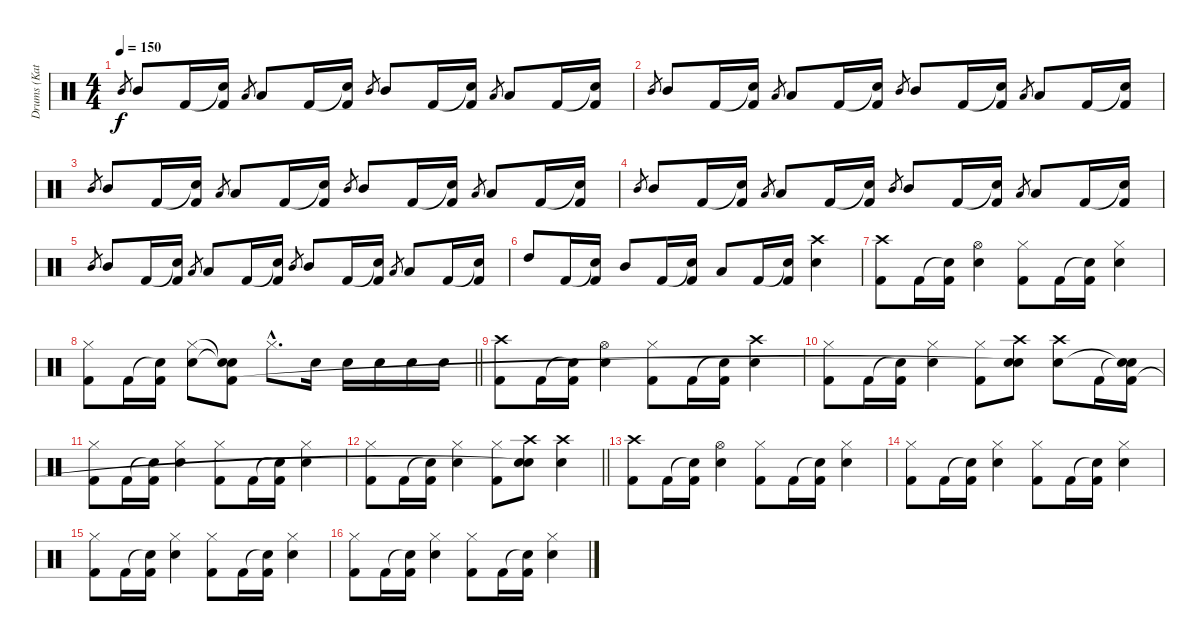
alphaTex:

\track ("Drums (Katsuji)" "Drums (Kat") {instrument percussion}
\staff {score}
\articulation defaults
\ts (4 4)
\tempo 150
\clef neutral
\ks c "Mid Tom (hit)".8{gr dy f} "Mid Tom (hit)".8 "Kick (hit) 2".16
("Snare (hit)"{t} "Kick (hit) 2").16 "Low Tom (hit)".8{gr} "Low Tom (hit)".8 "Kick (hit) 2".16 ("Snare (hit)"{t} "Kick (hit) 2").16 "Mid Tom (hit)".8{gr} "Mid Tom (hit)".8 "Kick (hit) 2".16 ("Snare (hit)"{t} "Kick (hit) 2").16 "Low Tom (hit)".8{gr} "Low Tom (hit)".8 "Kick (hit) 2".16 ("Snare (hit)"{t} "Kick (hit) 2").16 |
"Mid Tom (hit)".8{gr} "Mid Tom (hit)".8 "Kick (hit) 2".16 ("Snare (hit)"{t} "Kick (hit) 2").16 "Low Tom (hit)".8{gr} "Low Tom (hit)".8 "Kick (hit) 2".16 ("Snare (hit)"{t} "Kick (hit) 2").16 "Mid Tom (hit)".8{gr} "Mid Tom (hit)".8 "Kick (hit) 2".16 ("Snare (hit)"{t} "Kick (hit) 2").16 "Low Tom (hit)".8{gr} "Low Tom (hit)".8 "Kick (hit) 2".16 ("Snare (hit)"{t} "Kick (hit) 2").16 |
"Mid Tom (hit)".8{gr} "Mid Tom (hit)".8 "Kick (hit) 2".16 ("Snare (hit)"{t} "Kick (hit) 2").16 "Low Tom (hit)".8{gr} "Low Tom (hit)".8 "Kick (hit) 2".16 ("Snare (hit)"{t} "Kick (hit) 2").16 "Mid Tom (hit)".8{gr} "Mid Tom (hit)".8 "Kick (hit) 2".16 ("Snare (hit)"{t} "Kick (hit) 2").16 "Low Tom (hit)".8{gr} "Low Tom (hit)".8 "Kick (hit) 2".16 ("Snare (hit)"{t} "Kick (hit) 2").16 |
"Mid Tom (hit)".8{gr} "Mid Tom (hit)".8 "Kick (hit) 2".16 ("Snare (hit)"{t} "Kick (hit) 2").16 "Low Tom (hit)".8{gr} "Low Tom (hit)".8 "Kick (hit) 2".16 ("Snare (hit)"{t} "Kick (hit) 2").16 "Mid Tom (hit)".8{gr} "Mid Tom (hit)".8 "Kick (hit) 2".16 ("Snare (hit)"{t} "Kick (hit) 2").16 "Low Tom (hit)".8{gr} "Low Tom (hit)".8 "Kick (hit) 2".16 ("Snare (hit)"{t} "Kick (hit) 2").16 |
"Mid Tom (hit)".8{gr} "Mid Tom (hit)".8 "Kick (hit) 2".16 ("Snare (hit)"{t} "Kick (hit) 2").16 "Low Tom (hit)".8{gr} "Low Tom (hit)".8 "Kick (hit) 2".16 ("Snare (hit)"{t} "Kick (hit) 2").16 "Mid Tom (hit)".8{gr} "Mid Tom (hit)".8 "Kick (hit) 2".16 ("Snare (hit)"{t} "Kick (hit) 2").16 "Low Tom (hit)".8{gr} "Low Tom (hit)".8 "Kick (hit) 2".16 ("Snare (hit)"{t} "Kick (hit) 2").16 |
"High Tom (hit)".8 "Kick (hit) 2".16 ("Snare (hit)"{t} "Kick (hit) 2").16 "Mid Tom (hit)".8 "Kick (hit) 2".16 ("Snare (hit)"{t} "Kick (hit) 2").16 "Low Tom (hit)".8 "Kick (hit) 2".16 ("Snare (hit)"{t} "Kick (hit) 2").16 ("Crash high (hit)" "Snare (hit) 2").4 |
("Crash high (hit)" "Kick (hit) 2").8 "Kick (hit) 2".16 ("Snare (hit)"{t} "Kick (hit) 2").16 ("Hi-Hat (open)" "Snare (hit) 2").4 ("Hi-Hat (closed)" "Kick (hit) 2").8 "Kick (hit) 2".16 ("Snare (hit)"{t} "Kick (hit) 2").16 ("Hi-Hat (closed)" "Snare (hit) 2").4 |
\barLineRight lightlight
("Hi-Hat (closed)" "Kick (hit) 2").8 "Kick (hit) 2".16 ("Snare (hit)"{t} "Kick (hit) 2").16 ("Hi-Hat (closed)" "Snare (hit) 2").8 ("Snare (hit)"{t} "Snare (hit)"{t} "Kick (hit) 2").8 "Hi-Hat (closed)"{hac}.8{d} "Snare (hit) 2".16 "Snare (hit) 2".16 "Snare (hit) 2".16 "Snare (hit) 2".16 "Snare (hit) 2".16 |
("Crash high (hit)" "Kick (hit) 2").8 "Kick (hit) 2".16 ("Snare (hit)"{t} "Kick (hit) 2").16 ("Hi-Hat (open)" "Snare (hit) 2").4 ("Hi-Hat (closed)" "Kick (hit) 2").8 "Kick (hit) 2".16 ("Snare (hit)"{t} "Kick (hit) 2").16 ("Crash high (hit)" "Snare (hit) 2").4 |
("Hi-Hat (closed)" "Kick (hit) 2").8 "Kick (hit) 2".16 ("Snare (hit)"{t} "Kick (hit) 2").16 ("Hi-Hat (closed)" "Snare (hit) 2").4 ("Hi-Hat (closed)" "Kick (hit) 2").8 ("Crash high (hit)" "Snare (hit) 2" "Snare (hit)"{t}).8 ("Crash high (hit)" "Snare (hit) 2").8 "Kick (hit) 2".16 ("Snare (hit)"{t} "Snare (hit)"{t} "Kick (hit) 2").16 |
("Hi-Hat (closed)" "Kick (hit) 2").8 "Kick (hit) 2".16 ("Snare (hit)"{t} "Kick (hit) 2").16 ("Hi-Hat (closed)" "Snare (hit) 2").4 ("Hi-Hat (closed)" "Kick (hit) 2").8 "Kick (hit) 2".16 ("Snare (hit)"{t} "Kick (hit) 2").16 ("Hi-Hat (closed)" "Snare (hit) 2").4 |
\barLineRight lightlight
("Hi-Hat (closed)" "Kick (hit) 2").8 "Kick (hit) 2".16 ("Snare (hit)"{t} "Kick (hit) 2").16 ("Hi-Hat (closed)" "Snare (hit) 2").4 ("Hi-Hat (closed)" "Kick (hit) 2").8 ("Crash high (hit)" "Snare (hit) 2" "Snare (hit)"{t}).8 ("Crash high (hit)" "Snare (hit) 2").4 |
("Crash high (hit)" "Kick (hit) 2").8 "Kick (hit) 2".16 ("Snare (hit)"{t} "Kick (hit) 2").16 ("Hi-Hat (open)" "Snare (hit) 2").4 ("Hi-Hat (closed)" "Kick (hit) 2").8 "Kick (hit) 2".16 ("Snare (hit)"{t} "Kick (hit) 2").16 ("Hi-Hat (closed)" "Snare (hit) 2").4 |
("Hi-Hat (closed)" "Kick (hit) 2").8 "Kick (hit) 2".16 ("Snare (hit)"{t} "Kick (hit) 2").16 ("Hi-Hat (closed)" "Snare (hit) 2").4 ("Hi-Hat (closed)" "Kick (hit) 2").8 "Kick (hit) 2".16 ("Snare (hit)"{t} "Kick (hit) 2").16 ("Hi-Hat (closed)" "Snare (hit) 2").4 |
("Hi-Hat (closed)" "Kick (hit) 2").8 "Kick (hit) 2".16 ("Snare (hit)"{t} "Kick (hit) 2").16 ("Hi-Hat (closed)" "Snare (hit) 2").4 ("Hi-Hat (closed)" "Kick (hit) 2").8 "Kick (hit) 2".16 ("Snare (hit)"{t} "Kick (hit) 2").16 ("Hi-Hat (closed)" "Snare (hit) 2").4 |
("Hi-Hat (closed)" "Kick (hit) 2").8 "Kick (hit) 2".16 ("Snare (hit)"{t} "Kick (hit) 2").16 ("Hi-Hat (closed)" "Snare (hit) 2").4 ("Hi-Hat (closed)" "Kick (hit) 2").8 "Kick (hit) 2".16 ("Snare (hit)"{t} "Kick (hit) 2").16 ("Hi-Hat (closed)" "Snare (hit) 2").4
